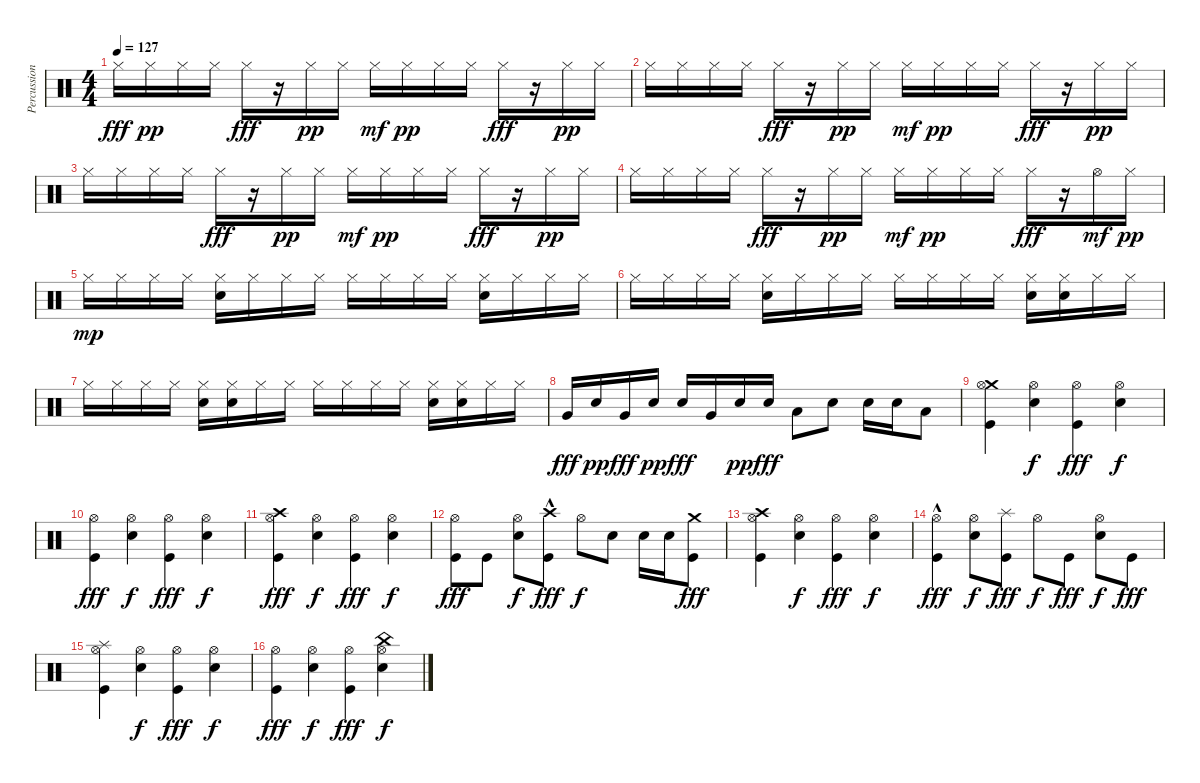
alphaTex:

\track ("Percussion" "Percussion") {instrument percussion}
\staff {score}
\articulation defaults
\ts (4 4)
\tempo 127
\clef neutral
\ks c "Hi-Hat (closed)".16{dy fff} "Hi-Hat (closed)".16{dy pp} "Hi-Hat (closed)".16 "Hi-Hat (closed)".16 "Hi-Hat (closed)".16{dy fff}
r.16 "Hi-Hat (closed)".16{dy pp} "Hi-Hat (closed)".16 "Hi-Hat (closed)".16{dy mf} "Hi-Hat (closed)".16{dy pp} "Hi-Hat (closed)".16 "Hi-Hat (closed)".16 "Hi-Hat (closed)".16{dy fff} r.16 "Hi-Hat (closed)".16{dy pp} "Hi-Hat (closed)".16 |
"Hi-Hat (closed)".16 "Hi-Hat (closed)".16 "Hi-Hat (closed)".16 "Hi-Hat (closed)".16 "Hi-Hat (closed)".16{dy fff} r.16 "Hi-Hat (closed)".16{dy pp} "Hi-Hat (closed)".16 "Hi-Hat (closed)".16{dy mf} "Hi-Hat (closed)".16{dy pp} "Hi-Hat (closed)".16 "Hi-Hat (closed)".16 "Hi-Hat (closed)".16{dy fff} r.16 "Hi-Hat (closed)".16{dy pp} "Hi-Hat (closed)".16 |
"Hi-Hat (closed)".16 "Hi-Hat (closed)".16 "Hi-Hat (closed)".16 "Hi-Hat (closed)".16 "Hi-Hat (closed)".16{dy fff} r.16 "Hi-Hat (closed)".16{dy pp} "Hi-Hat (closed)".16 "Hi-Hat (closed)".16{dy mf} "Hi-Hat (closed)".16{dy pp} "Hi-Hat (closed)".16 "Hi-Hat (closed)".16 "Hi-Hat (closed)".16{dy fff} r.16 "Hi-Hat (closed)".16{dy pp} "Hi-Hat (closed)".16 |
"Hi-Hat (closed)".16 "Hi-Hat (closed)".16 "Hi-Hat (closed)".16 "Hi-Hat (closed)".16 "Hi-Hat (closed)".16{dy fff} r.16 "Hi-Hat (closed)".16{dy pp} "Hi-Hat (closed)".16 "Hi-Hat (closed)".16{dy mf} "Hi-Hat (closed)".16{dy pp} "Hi-Hat (closed)".16 "Hi-Hat (closed)".16 "Hi-Hat (closed)".16{dy fff} r.16 "Hi-Hat (open)".16{dy mf} "Hi-Hat (closed)".16{dy pp} |
"Hi-Hat (closed)".16{dy mp} "Hi-Hat (closed)".16 "Hi-Hat (closed)".16 "Hi-Hat (closed)".16 ("Electric Snare (hit)" "Hi-Hat (closed)").16 "Hi-Hat (closed)".16 "Hi-Hat (closed)".16 "Hi-Hat (closed)".16 "Hi-Hat (closed)".16 "Hi-Hat (closed)".16 "Hi-Hat (closed)".16 "Hi-Hat (closed)".16 ("Electric Snare (hit)" "Hi-Hat (closed)").16 "Hi-Hat (closed)".16 "Hi-Hat (closed)".16 "Hi-Hat (closed)".16 |
"Hi-Hat (closed)".16 "Hi-Hat (closed)".16 "Hi-Hat (closed)".16 "Hi-Hat (closed)".16 ("Electric Snare (hit)" "Hi-Hat (closed)").16 "Hi-Hat (closed)".16 "Hi-Hat (closed)".16 "Hi-Hat (closed)".16 "Hi-Hat (closed)".16 "Hi-Hat (closed)".16 "Hi-Hat (closed)".16 "Hi-Hat (closed)".16 ("Electric Snare (hit)" "Hi-Hat (closed)").16 ("Electric Snare (hit)" "Hi-Hat (closed)").16 "Hi-Hat (closed)".16 "Hi-Hat (closed)".16 |
"Hi-Hat (closed)".16 "Hi-Hat (closed)".16 "Hi-Hat (closed)".16 "Hi-Hat (closed)".16 ("Electric Snare (hit)" "Hi-Hat (closed)").16 ("Electric Snare (hit)" "Hi-Hat (closed)").16 "Hi-Hat (closed)".16 "Hi-Hat (closed)".16 "Hi-Hat (closed)".16 "Hi-Hat (closed)".16 "Hi-Hat (closed)".16 "Hi-Hat (closed)".16 ("Electric Snare (hit)" "Hi-Hat (closed)").16 ("Electric Snare (hit)" "Hi-Hat (closed)").16 "Hi-Hat (closed)".16 "Hi-Hat (closed)".16 |
"Very Low Tom (hit)".16{dy fff} "Electric Snare (hit)".16{dy pp} "Very Low Tom (hit)".16{dy fff} "Electric Snare (hit)".16{dy pp} "Electric Snare (hit)".16{dy fff} "Very Low Tom (hit)".16 "Electric Snare (hit)".16{dy pp} "Electric Snare (hit)".16{dy fff} "Low Tom (hit)".8 "Electric Snare (hit)".8 "Electric Snare (hit)".16 "Electric Snare (hit)".16 "Low Floor Tom (hit)".8 |
("Crash medium (hit)" "Hi-Hat (open)" "Kick (hit)").4 ("Electric Snare (hit)" "Hi-Hat (open)").4{dy f} ("Hi-Hat (open)" "Kick (hit)").4{dy fff} ("Electric Snare (hit)" "Hi-Hat (open)").4{dy f} |
("Hi-Hat (open)" "Kick (hit)").4{dy fff} ("Electric Snare (hit)" "Hi-Hat (open)").4{dy f} ("Hi-Hat (open)" "Kick (hit)").4{dy fff} ("Electric Snare (hit)" "Hi-Hat (open)").4{dy f} |
("Crash high (hit)" "Hi-Hat (open)" "Kick (hit)").4{dy fff} ("Electric Snare (hit)" "Hi-Hat (open)").4{dy f} ("Hi-Hat (open)" "Kick (hit)").4{dy fff} ("Electric Snare (hit)" "Hi-Hat (open)").4{dy f} |
("Hi-Hat (open)" "Kick (hit)").8{dy fff} "Kick (hit)".8 ("Electric Snare (hit)" "Hi-Hat (open)").8{dy f} ("Crash high (hit)" "Kick (hit)"{hac}).8{dy fff} "Hi-Hat (open)".8{dy f} "Electric Snare (hit)".8 "Electric Snare (hit)".16 "Electric Snare (hit)".16 ("Crash medium (hit)" "Kick (hit)").8{dy fff} |
("Crash high (hit)" "Hi-Hat (open)" "Kick (hit)").4 ("Electric Snare (hit)" "Hi-Hat (open)").4{dy f} ("Hi-Hat (open)" "Kick (hit)").4{dy fff} ("Electric Snare (hit)" "Hi-Hat (open)").4{dy f} |
("Hi-Hat (open)" "Kick (hit)"{hac}).4{dy fff} ("Electric Snare (hit)" "Hi-Hat (open)").8{dy f} ("Splash (hit)" "Kick (hit)").8{dy fff} "Hi-Hat (open)".8{dy f} "Kick (hit)".8{dy fff} ("Hi-Hat (open)" "Electric Snare (hit)").8{dy f} "Kick (hit)".8{dy fff} |
("Splash (hit)" "Hi-Hat (open)" "Kick (hit)").4 ("Electric Snare (hit)" "Hi-Hat (open)").4{dy f} ("Hi-Hat (open)" "Kick (hit)").4{dy fff} ("Electric Snare (hit)" "Hi-Hat (open)").4{dy f} |
("Hi-Hat (open)" "Kick (hit)").4{dy fff} ("Electric Snare (hit)" "Hi-Hat (open)").4{dy f} ("Hi-Hat (open)" "Kick (hit)").4{dy fff} ("China (hit)" "Electric Snare (hit)" "Hi-Hat (open)").4{dy f}
